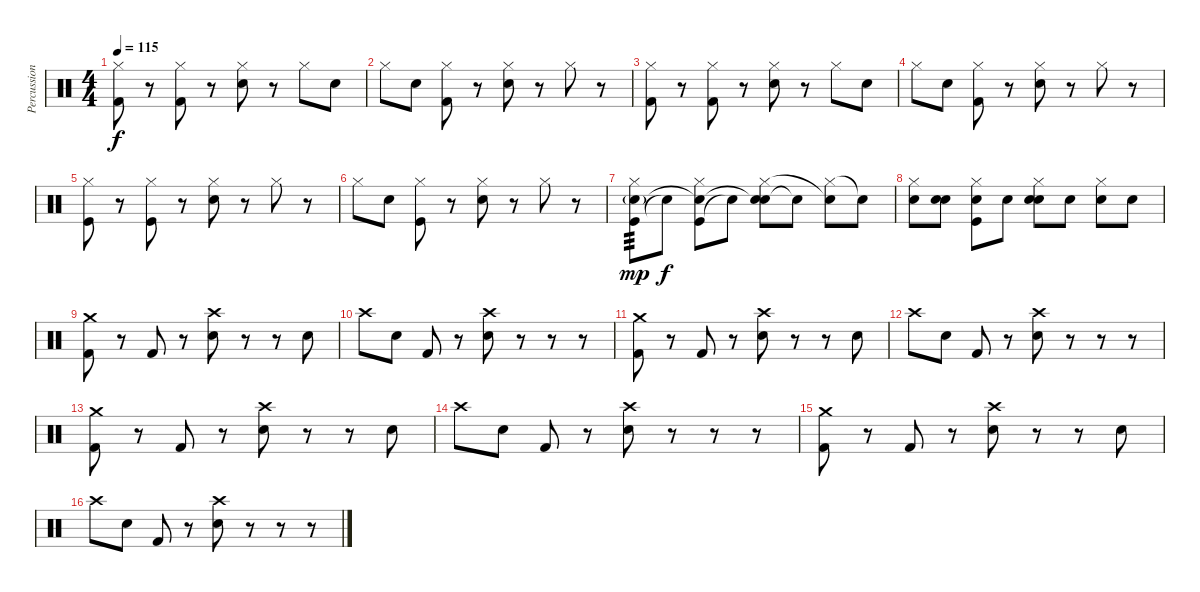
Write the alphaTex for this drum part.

\track ("Percussion" "Percussion") {instrument percussion}
\staff {score}
\articulation defaults
\ts (4 4)
\tempo 115
\clef neutral
\ks c
("Kick (hit) 2" "Hi-Hat (closed)").8{dy f} r.8 ("Kick (hit) 2" "Hi-Hat (closed)").8 r.8 ("Electric Snare (hit)" "Hi-Hat (closed)").8 r.8 "Hi-Hat (closed)".8 "Electric Snare (hit)".8 |
"Hi-Hat (closed)".8 "Electric Snare (hit)".8 ("Kick (hit) 2" "Hi-Hat (closed)").8 r.8 ("Electric Snare (hit)" "Hi-Hat (closed)").8 r.8 "Hi-Hat (closed)".8 r.8 |
("Kick (hit) 2" "Hi-Hat (closed)").8 r.8 ("Kick (hit) 2" "Hi-Hat (closed)").8 r.8 ("Electric Snare (hit)" "Hi-Hat (closed)").8 r.8 "Hi-Hat (closed)".8 "Electric Snare (hit)".8 |
"Hi-Hat (closed)".8 "Electric Snare (hit)".8 ("Kick (hit) 2" "Hi-Hat (closed)").8 r.8 ("Electric Snare (hit)" "Hi-Hat (closed)").8 r.8 "Hi-Hat (closed)".8 r.8 |
("Kick (hit)" "Hi-Hat (closed)").8 r.8 ("Kick (hit)" "Hi-Hat (closed)").8 r.8 ("Snare (hit) 2" "Hi-Hat (closed)").8 r.8 "Hi-Hat (closed)".8 r.8 |
"Hi-Hat (closed)".8 "Snare (hit) 2".8 ("Kick (hit)" "Hi-Hat (closed)").8 r.8 ("Snare (hit) 2" "Hi-Hat (closed)").8 r.8 "Hi-Hat (closed)".8 r.8 |
("Kick (hit)" "Hi-Hat (closed)" "Electric Snare (hit)"{g}).8{tp 3 dy mp} "Snare (hit)"{t}.8{dy f} ("Kick (hit)" "Hi-Hat (closed)" "Snare (hit)"{t}).8 "Snare (hit)"{t}.8 ("Snare (hit) 2" "Hi-Hat (closed)" "Snare (hit)"{t}).8 "Snare (hit)"{t}.8 ("Hi-Hat (closed)" "Snare (hit)"{t}).8 "Snare (hit)"{t}.8 |
("Hi-Hat (closed)" "Electric Snare (hit)").8 ("Snare (hit) 2" "Electric Snare (hit)").8 ("Kick (hit)" "Hi-Hat (closed)" "Electric Snare (hit)").8 "Electric Snare (hit)".8 ("Snare (hit) 2" "Hi-Hat (closed)" "Electric Snare (hit)").8 "Electric Snare (hit)".8 ("Hi-Hat (closed)" "Electric Snare (hit)").8 "Electric Snare (hit)".8 |
("Kick (hit) 2" "Crash medium (hit)").8 r.8 "Kick (hit) 2".8 r.8 ("Electric Snare (hit)" "Crash high (hit)").8 r.8 r.8 "Electric Snare (hit)".8 |
"Crash high (hit)".8 "Electric Snare (hit)".8 "Kick (hit) 2".8 r.8 ("Electric Snare (hit)" "Crash high (hit)").8 r.8 r.8 r.8 |
("Kick (hit) 2" "Crash medium (hit)").8 r.8 "Kick (hit) 2".8 r.8 ("Electric Snare (hit)" "Crash high (hit)").8 r.8 r.8 "Electric Snare (hit)".8 |
"Crash high (hit)".8 "Electric Snare (hit)".8 "Kick (hit) 2".8 r.8 ("Electric Snare (hit)" "Crash high (hit)").8 r.8 r.8 r.8 |
("Kick (hit) 2" "Crash medium (hit)").8 r.8 "Kick (hit) 2".8 r.8 ("Electric Snare (hit)" "Crash high (hit)").8 r.8 r.8 "Electric Snare (hit)".8 |
"Crash high (hit)".8 "Electric Snare (hit)".8 "Kick (hit) 2".8 r.8 ("Electric Snare (hit)" "Crash high (hit)").8 r.8 r.8 r.8 |
("Kick (hit) 2" "Crash medium (hit)").8 r.8 "Kick (hit) 2".8 r.8 ("Electric Snare (hit)" "Crash high (hit)").8 r.8 r.8 "Electric Snare (hit)".8 |
"Crash high (hit)".8 "Electric Snare (hit)".8 "Kick (hit) 2".8 r.8 ("Electric Snare (hit)" "Crash high (hit)").8 r.8 r.8 r.8
